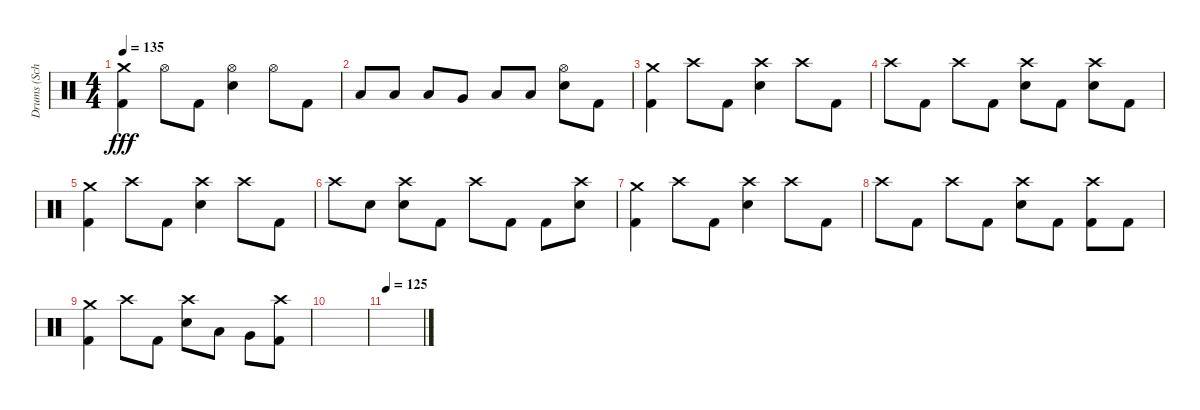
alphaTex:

\track ("Drums (Schill)" "Drums (Sch") {instrument percussion}
\staff {score}
\articulation defaults
\ts (4 4)
\tempo 135
\clef neutral
\ks c
("Crash medium (hit)" "Kick (hit) 2").4{dy fff} "Hi-Hat (open)".8 "Kick (hit) 2".8 ("Hi-Hat (open)" "Electric Snare (hit)").4 "Hi-Hat (open)".8 "Kick (hit) 2".8 |
"Low Tom (hit)".8 "Low Tom (hit)".8 "Low Tom (hit)".8 "Very Low Tom (hit)".8 "Low Floor Tom (hit)".8 "Low Floor Tom (hit)".8 ("Hi-Hat (open)" "Electric Snare (hit)").8 "Kick (hit) 2".8 |
("Crash medium (hit)" "Kick (hit) 2").4 "Crash high (hit)".8 "Kick (hit) 2".8 ("Crash high (hit)" "Electric Snare (hit)").4 "Crash high (hit)".8 "Kick (hit) 2".8 |
"Crash high (hit)".8 "Kick (hit) 2".8 "Crash high (hit)".8 "Kick (hit) 2".8 ("Crash high (hit)" "Electric Snare (hit)").8 "Kick (hit) 2".8 ("Crash high (hit)" "Electric Snare (hit)").8 "Kick (hit) 2".8 |
("Crash medium (hit)" "Kick (hit) 2").4 "Crash high (hit)".8 "Kick (hit) 2".8 ("Crash high (hit)" "Electric Snare (hit)").4 "Crash high (hit)".8 "Kick (hit) 2".8 |
"Crash high (hit)".8 "Electric Snare (hit)".8 ("Crash high (hit)" "Electric Snare (hit)").8 "Kick (hit) 2".8 "Crash high (hit)".8 "Kick (hit) 2".8 "Kick (hit) 2".8 ("Crash high (hit)" "Electric Snare (hit)").8 |
("Crash medium (hit)" "Kick (hit) 2").4 "Crash high (hit)".8 "Kick (hit) 2".8 ("Crash high (hit)" "Electric Snare (hit)").4 "Crash high (hit)".8 "Kick (hit) 2".8 |
"Crash high (hit)".8 "Kick (hit) 2".8 "Crash high (hit)".8 "Kick (hit) 2".8 ("Crash high (hit)" "Electric Snare (hit)").8 "Kick (hit) 2".8 ("Crash high (hit)" "Kick (hit) 2").8 "Kick (hit) 2".8 |
("Crash medium (hit)" "Kick (hit) 2").4 "Crash high (hit)".8 "Kick (hit) 2".8 ("Crash high (hit)" "Electric Snare (hit)").8 "Low Tom (hit)".8 "Very Low Tom (hit)".8 ("Crash high (hit)" "Kick (hit) 2").8 |
|
\tempo 125
